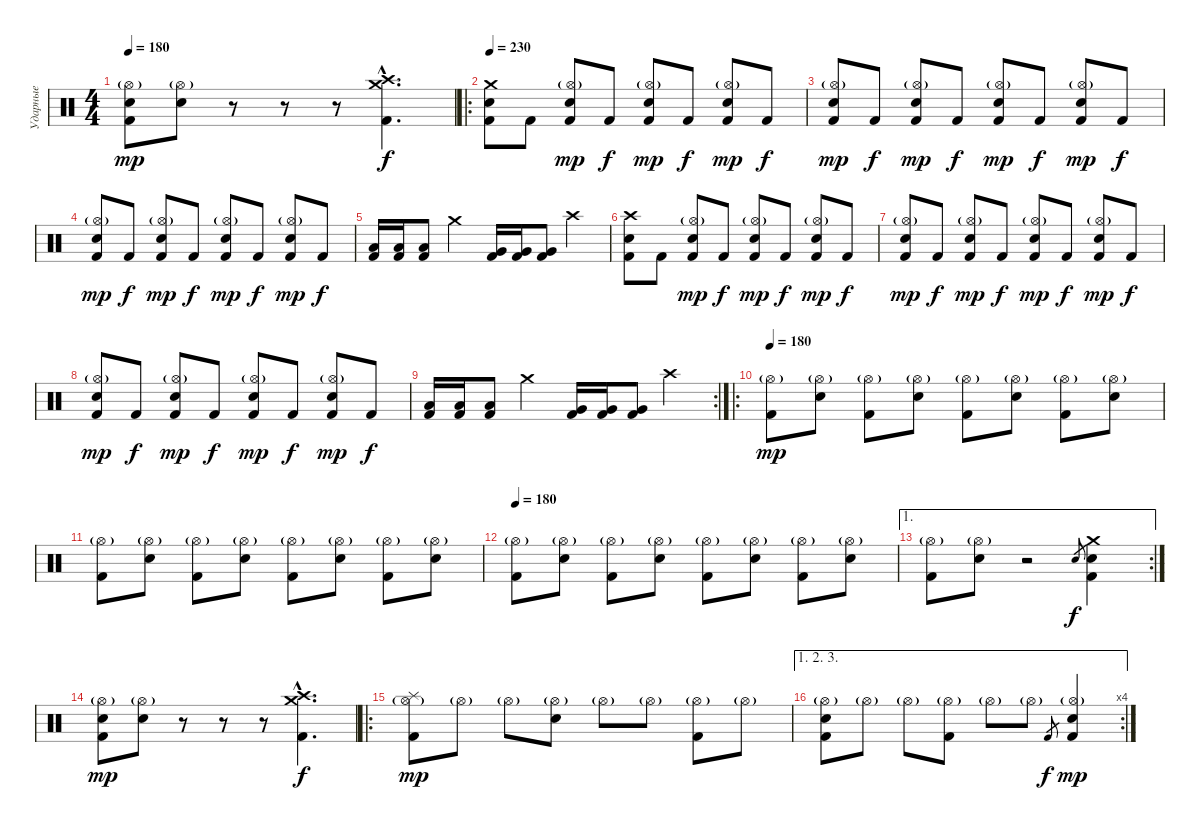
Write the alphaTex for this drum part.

\track ("Ударные" "Ударные") {instrument percussion}
\staff {score}
\articulation defaults
\ts (4 4)
\tempo 180
\clef neutral
\ks c
("Electric Snare (hit)" "Hi-Hat (open)"{g} "Kick (hit) 2").8{dy mp} ("Electric Snare (hit)" "Hi-Hat (open)"{g}).8 r.8 r.8 r.8 ("Crash high (hit)"{hac} "Crash medium (hit)"{hac} "Kick (hit) 2"{hac}).4{d dy f} |
\ro
\tempo 230
("Electric Snare (hit)" "Crash medium (hit)" "Kick (hit) 2").8 "Kick (hit) 2".8 ("Electric Snare (hit)" "Hi-Hat (open)"{g} "Kick (hit) 2").8{dy mp} "Kick (hit) 2".8{dy f} ("Electric Snare (hit)" "Hi-Hat (open)"{g} "Kick (hit) 2").8{dy mp} "Kick (hit) 2".8{dy f} ("Electric Snare (hit)" "Hi-Hat (open)"{g} "Kick (hit) 2").8{dy mp} "Kick (hit) 2".8{dy f} |
("Electric Snare (hit)" "Hi-Hat (open)"{g} "Kick (hit) 2").8{dy mp} "Kick (hit) 2".8{dy f} ("Electric Snare (hit)" "Hi-Hat (open)"{g} "Kick (hit) 2").8{dy mp} "Kick (hit) 2".8{dy f} ("Electric Snare (hit)" "Hi-Hat (open)"{g} "Kick (hit) 2").8{dy mp} "Kick (hit) 2".8{dy f} ("Electric Snare (hit)" "Hi-Hat (open)"{g} "Kick (hit) 2").8{dy mp} "Kick (hit) 2".8{dy f} |
("Electric Snare (hit)" "Hi-Hat (open)"{g} "Kick (hit) 2").8{dy mp} "Kick (hit) 2".8{dy f} ("Electric Snare (hit)" "Hi-Hat (open)"{g} "Kick (hit) 2").8{dy mp} "Kick (hit) 2".8{dy f} ("Electric Snare (hit)" "Hi-Hat (open)"{g} "Kick (hit) 2").8{dy mp} "Kick (hit) 2".8{dy f} ("Electric Snare (hit)" "Hi-Hat (open)"{g} "Kick (hit) 2").8{dy mp} "Kick (hit) 2".8{dy f} |
("Low Tom (hit)" "Kick (hit) 2").16 ("Low Tom (hit)" "Kick (hit) 2").16 ("Low Tom (hit)" "Kick (hit) 2").8 "Crash medium (hit)".4 ("Very Low Tom (hit)" "Kick (hit) 2").16 ("Very Low Tom (hit)" "Kick (hit) 2").16 ("Very Low Tom (hit)" "Kick (hit) 2").8 "Crash high (hit)".4 |
("Electric Snare (hit)" "Crash high (hit)" "Kick (hit) 2").8 "Kick (hit) 2".8 ("Electric Snare (hit)" "Hi-Hat (open)"{g} "Kick (hit) 2").8{dy mp} "Kick (hit) 2".8{dy f} ("Electric Snare (hit)" "Hi-Hat (open)"{g} "Kick (hit) 2").8{dy mp} "Kick (hit) 2".8{dy f} ("Electric Snare (hit)" "Hi-Hat (open)"{g} "Kick (hit) 2").8{dy mp} "Kick (hit) 2".8{dy f} |
("Electric Snare (hit)" "Hi-Hat (open)"{g} "Kick (hit) 2").8{dy mp} "Kick (hit) 2".8{dy f} ("Electric Snare (hit)" "Hi-Hat (open)"{g} "Kick (hit) 2").8{dy mp} "Kick (hit) 2".8{dy f} ("Electric Snare (hit)" "Hi-Hat (open)"{g} "Kick (hit) 2").8{dy mp} "Kick (hit) 2".8{dy f} ("Electric Snare (hit)" "Hi-Hat (open)"{g} "Kick (hit) 2").8{dy mp} "Kick (hit) 2".8{dy f} |
("Electric Snare (hit)" "Hi-Hat (open)"{g} "Kick (hit) 2").8{dy mp} "Kick (hit) 2".8{dy f} ("Electric Snare (hit)" "Hi-Hat (open)"{g} "Kick (hit) 2").8{dy mp} "Kick (hit) 2".8{dy f} ("Electric Snare (hit)" "Hi-Hat (open)"{g} "Kick (hit) 2").8{dy mp} "Kick (hit) 2".8{dy f} ("Electric Snare (hit)" "Hi-Hat (open)"{g} "Kick (hit) 2").8{dy mp} "Kick (hit) 2".8{dy f} |
\rc 2
("Low Tom (hit)" "Kick (hit) 2").16 ("Low Tom (hit)" "Kick (hit) 2").16 ("Low Tom (hit)" "Kick (hit) 2").8 "Crash medium (hit)".4 ("Very Low Tom (hit)" "Kick (hit) 2").16 ("Very Low Tom (hit)" "Kick (hit) 2").16 ("Very Low Tom (hit)" "Kick (hit) 2").8 "Crash high (hit)".4 |
\ro
\tempo 180
("Hi-Hat (open)"{g} "Kick (hit) 2").8{dy mp} ("Electric Snare (hit)" "Hi-Hat (open)"{g}).8 ("Hi-Hat (open)"{g} "Kick (hit) 2").8 ("Electric Snare (hit)" "Hi-Hat (open)"{g}).8 ("Hi-Hat (open)"{g} "Kick (hit) 2").8 ("Electric Snare (hit)" "Hi-Hat (open)"{g}).8 ("Hi-Hat (open)"{g} "Kick (hit) 2").8 ("Electric Snare (hit)" "Hi-Hat (open)"{g}).8 |
("Hi-Hat (open)"{g} "Kick (hit) 2").8 ("Electric Snare (hit)" "Hi-Hat (open)"{g}).8 ("Hi-Hat (open)"{g} "Kick (hit) 2").8 ("Electric Snare (hit)" "Hi-Hat (open)"{g}).8 ("Hi-Hat (open)"{g} "Kick (hit) 2").8 ("Electric Snare (hit)" "Hi-Hat (open)"{g}).8 ("Hi-Hat (open)"{g} "Kick (hit) 2").8 ("Electric Snare (hit)" "Hi-Hat (open)"{g}).8 |
\tempo 180
("Hi-Hat (open)"{g} "Kick (hit) 2").8 ("Electric Snare (hit)" "Hi-Hat (open)"{g}).8 ("Hi-Hat (open)"{g} "Kick (hit) 2").8 ("Electric Snare (hit)" "Hi-Hat (open)"{g}).8 ("Hi-Hat (open)"{g} "Kick (hit) 2").8 ("Electric Snare (hit)" "Hi-Hat (open)"{g}).8 ("Hi-Hat (open)"{g} "Kick (hit) 2").8 ("Electric Snare (hit)" "Hi-Hat (open)"{g}).8 |
\ae 1
\rc 2
("Hi-Hat (open)"{g} "Kick (hit) 2").8 ("Electric Snare (hit)" "Hi-Hat (open)"{g}).8 r.2 "Electric Snare (hit)".8{gr dy f} ("Crash medium (hit)" "Electric Snare (hit)" "Kick (hit) 2").4 |
("Electric Snare (hit)" "Hi-Hat (open)"{g} "Kick (hit) 2").8{dy mp} ("Electric Snare (hit)" "Hi-Hat (open)"{g}).8 r.8 r.8 r.8 ("Crash high (hit)"{hac} "Crash medium (hit)"{hac} "Kick (hit) 2"{hac}).4{d dy f} |
\ro
("Splash (hit)" "Hi-Hat (open)"{g} "Kick (hit) 2").8{dy mp} "Hi-Hat (open)"{g}.8 "Hi-Hat (open)"{g}.8 ("Electric Snare (hit)" "Hi-Hat (open)"{g}).8 "Hi-Hat (open)"{g}.8 "Hi-Hat (open)"{g}.8 ("Hi-Hat (open)"{g} "Kick (hit) 2").8 "Hi-Hat (open)"{g}.8 |
\ae (1 2 3)
\rc 4
("Electric Snare (hit)" "Hi-Hat (open)"{g} "Kick (hit) 2").8 "Hi-Hat (open)"{g}.8 "Hi-Hat (open)"{g}.8 ("Hi-Hat (open)"{g} "Kick (hit) 2").8 "Hi-Hat (open)"{g}.8 "Hi-Hat (open)"{g}.8 "Kick (hit) 2".8{gr dy f} ("Electric Snare (hit)" "Hi-Hat (open)"{g} "Kick (hit) 2").4{dy mp}
